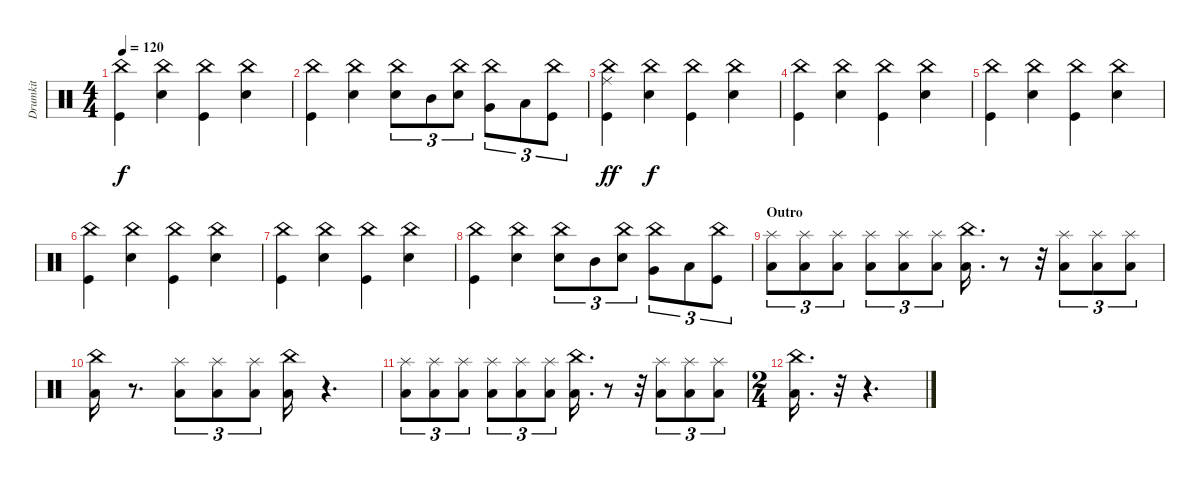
\track ("Drumkit" "Drumkit") {instrument percussion}
\staff {score}
\articulation defaults
\ts (4 4)
\tempo 120
\clef neutral
\ks c
("Kick (hit)" "China (hit)").4{dy f} ("Snare (hit) 2" "China (hit)").4 ("Kick (hit)" "China (hit)").4 ("Snare (hit) 2" "China (hit)").4 |
("Kick (hit)" "China (hit)").4 ("Snare (hit) 2" "China (hit)").4 ("Snare (hit) 2" "China (hit)").8{tu (3 2)} "Mid Tom (hit)".8{tu (3 2)} ("Snare (hit) 2" "China (hit)").8{tu (3 2)} ("Very Low Tom (hit)" "China (hit)").8{tu (3 2)} "Low Floor Tom (hit)".8{tu (3 2)} ("Kick (hit)" "China (hit)").8{tu (3 2)} |
("Kick (hit)" "China (hit)" "Ride (middle)").4{dy ff} ("Snare (hit) 2" "China (hit)").4{dy f} ("Kick (hit)" "China (hit)").4 ("Snare (hit) 2" "China (hit)").4 |
("Kick (hit)" "China (hit)").4 ("Snare (hit) 2" "China (hit)").4 ("Kick (hit)" "China (hit)").4 ("Snare (hit) 2" "China (hit)").4 |
("Kick (hit)" "China (hit)").4 ("Snare (hit) 2" "China (hit)").4 ("Kick (hit)" "China (hit)").4 ("Snare (hit) 2" "China (hit)").4 |
("Kick (hit)" "China (hit)").4 ("Snare (hit) 2" "China (hit)").4 ("Kick (hit)" "China (hit)").4 ("Snare (hit) 2" "China (hit)").4 |
("Kick (hit)" "China (hit)").4 ("Snare (hit) 2" "China (hit)").4 ("Kick (hit)" "China (hit)").4 ("Snare (hit) 2" "China (hit)").4 |
("Kick (hit)" "China (hit)").4 ("Snare (hit) 2" "China (hit)").4 ("Snare (hit) 2" "China (hit)").8{tu (3 2)} "Mid Tom (hit)".8{tu (3 2)} ("Snare (hit) 2" "China (hit)").8{tu (3 2)} ("Very Low Tom (hit)" "China (hit)").8{tu (3 2)} "Low Floor Tom (hit)".8{tu (3 2)} ("Kick (hit)" "China (hit)").8{tu (3 2)} |
\section ("" "Outro")
("Splash (hit)" "Low Tom (hit)").8{tu (3 2)} ("Splash (hit)" "Low Tom (hit)").8{tu (3 2)} ("Splash (hit)" "Low Tom (hit)").8{tu (3 2)} ("Splash (hit)" "Low Tom (hit)").8{tu (3 2)} ("Splash (hit)" "Low Tom (hit)").8{tu (3 2)} ("Splash (hit)" "Low Tom (hit)").8{tu (3 2)} ("China (hit)" "Low Tom (hit)").16{d} r.8 r.32 ("Splash (hit)" "Low Tom (hit)").8{tu (3 2)} ("Splash (hit)" "Low Tom (hit)").8{tu (3 2)} ("Splash (hit)" "Low Tom (hit)").8{tu (3 2)} |
("China (hit)" "Low Tom (hit)").16 r.8{d} ("Splash (hit)" "Low Tom (hit)").8{tu (3 2)} ("Splash (hit)" "Low Tom (hit)").8{tu (3 2)} ("Splash (hit)" "Low Tom (hit)").8{tu (3 2)} ("China (hit)" "Low Tom (hit)").16 r.4{d} |
("Splash (hit)" "Low Tom (hit)").8{tu (3 2)} ("Splash (hit)" "Low Tom (hit)").8{tu (3 2)} ("Splash (hit)" "Low Tom (hit)").8{tu (3 2)} ("Splash (hit)" "Low Tom (hit)").8{tu (3 2)} ("Splash (hit)" "Low Tom (hit)").8{tu (3 2)} ("Splash (hit)" "Low Tom (hit)").8{tu (3 2)} ("China (hit)" "Low Tom (hit)").16{d} r.8 r.32 ("Splash (hit)" "Low Tom (hit)").8{tu (3 2)} ("Splash (hit)" "Low Tom (hit)").8{tu (3 2)} ("Splash (hit)" "Low Tom (hit)").8{tu (3 2)} |
\ts (2 4)
("China (hit)" "Low Tom (hit)").16{d} r.32 r.4{d}
